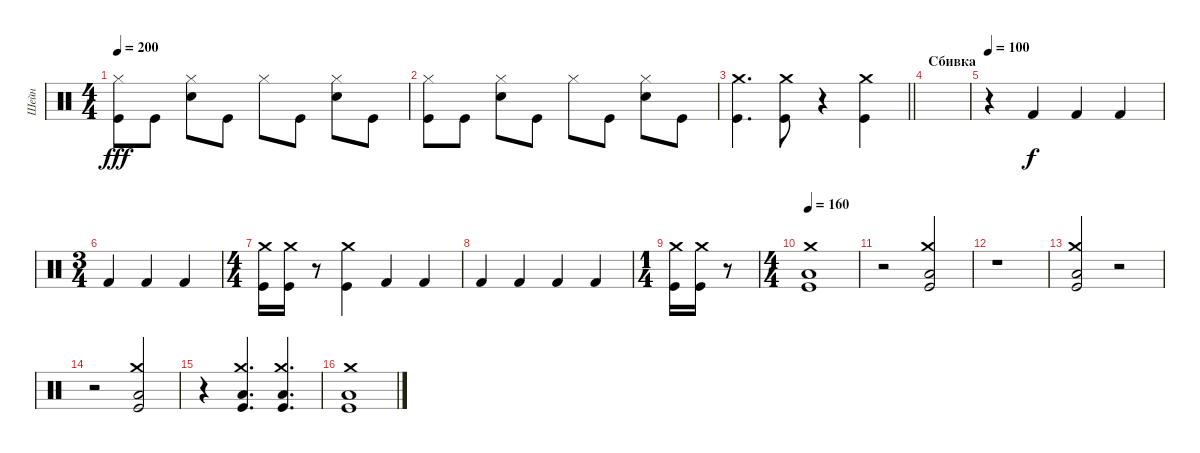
\track ("Шейн" "Шейн") {instrument percussion}
\staff {score}
\articulation defaults
\ts (4 4)
\tempo 200
\clef neutral
\ks c
("Kick (hit)" "Hi-Hat (closed)").8{dy fff} "Kick (hit)".8 ("Snare (hit) 2" "Hi-Hat (closed)").8 "Kick (hit)".8 "Hi-Hat (closed)".8 "Kick (hit)".8 ("Snare (hit) 2" "Hi-Hat (closed)").8 "Kick (hit)".8 |
("Kick (hit)" "Hi-Hat (closed)").8 "Kick (hit)".8 ("Snare (hit) 2" "Hi-Hat (closed)").8 "Kick (hit)".8 "Hi-Hat (closed)".8 "Kick (hit)".8 ("Snare (hit) 2" "Hi-Hat (closed)").8 "Kick (hit)".8 |
\barLineRight lightlight
("Kick (hit)" "Crash medium (hit)").4{d} ("Kick (hit)" "Crash medium (hit)").8 r.4 ("Crash medium (hit)" "Kick (hit)").4 |
\section ("" "Сбивка")
|
\tempo 100
r.4 "Kick (hit) 2".4{dy f} "Kick (hit) 2".4 "Kick (hit) 2".4 |
\ts (3 4)
"Kick (hit) 2".4 "Kick (hit) 2".4 "Kick (hit) 2".4 |
\ts (4 4)
("Kick (hit)" "Crash medium (hit)").16 ("Kick (hit)" "Crash medium (hit)").16 r.8 ("Kick (hit)" "Crash medium (hit)").4 "Kick (hit) 2".4 "Kick (hit) 2".4 |
"Kick (hit) 2".4 "Kick (hit) 2".4 "Kick (hit) 2".4 "Kick (hit) 2".4 |
\ts (1 4)
("Kick (hit)" "Crash medium (hit)").16 ("Kick (hit)" "Crash medium (hit)").16 r.8 |
\ts (4 4)
\tempo 160
("Crash medium (hit)" "Kick (hit)" "Low Floor Tom (hit)").1 |
r.2 ("Crash medium (hit)" "Kick (hit)" "Low Floor Tom (hit)").2 |
r.1 |
("Crash medium (hit)" "Kick (hit)" "Low Floor Tom (hit)").2 r.2 |
r.2 ("Crash medium (hit)" "Kick (hit)" "Low Floor Tom (hit)").2 |
r.4 ("Crash medium (hit)" "Kick (hit)" "Low Floor Tom (hit)").4{d} ("Crash medium (hit)" "Kick (hit)" "Low Floor Tom (hit)").4{d} |
("Crash medium (hit)" "Kick (hit)" "Low Floor Tom (hit)").1
